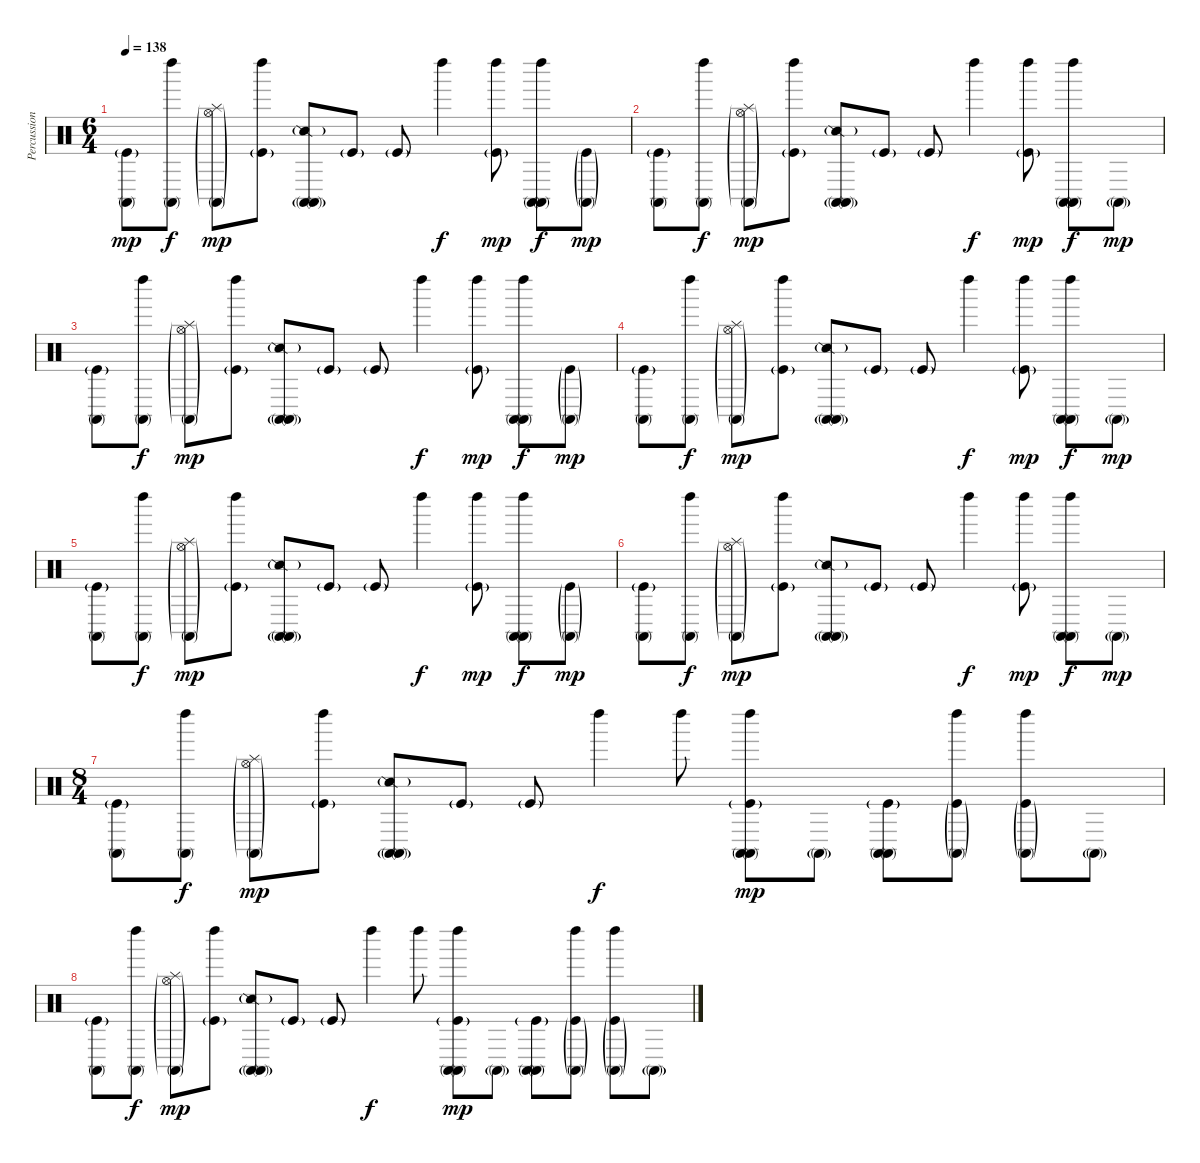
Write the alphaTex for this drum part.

\track ("Percussions" "Percussion") {instrument percussion}
\staff {score}
\articulation defaults
\ts (6 4)
\tempo 138
\clef neutral
\ks c
("Conga high (mute)" "Kick (hit)"{g}).8{dy mp} ("Conga high (mute)" "Left Maraca (hit)").8{dy f} ("Splash (hit)"{g} "Hi-Hat (open)"{g} "Conga high (mute)"{g}).8{dy mp} ("Kick (hit)"{g} "Left Maraca (hit)").8 ("Snare (side stick) 2"{g} "Conga high (mute)" "Conga high (mute)"{g}).8 "Kick (hit)"{g}.8 "Kick (hit)"{g}.8 "Left Maraca (hit)".4{dy f} ("Kick (hit)"{g} "Left Maraca (hit)").8{dy mp} ("Conga high (mute)" "Conga high (mute)" "Left Maraca (hit)").8{dy f} ("Conga high (mute)"{g} "Kick (hit)"{g}).8{dy mp} |
("Conga high (mute)" "Kick (hit)"{g}).8 ("Conga high (mute)" "Left Maraca (hit)").8{dy f} ("Splash (hit)"{g} "Hi-Hat (open)"{g} "Conga high (mute)"{g}).8{dy mp} ("Kick (hit)"{g} "Left Maraca (hit)").8 ("Snare (side stick) 2"{g} "Conga high (mute)" "Conga high (mute)"{g}).8 "Kick (hit)"{g}.8 "Kick (hit)"{g}.8 "Left Maraca (hit)".4{dy f} ("Kick (hit)"{g} "Left Maraca (hit)").8{dy mp} ("Conga high (mute)" "Conga high (mute)" "Left Maraca (hit)").8{dy f} "Conga high (mute)"{g}.8{dy mp} |
("Conga high (mute)" "Kick (hit)"{g}).8 ("Conga high (mute)" "Left Maraca (hit)").8{dy f} ("Splash (hit)"{g} "Hi-Hat (open)"{g} "Conga high (mute)"{g}).8{dy mp} ("Kick (hit)"{g} "Left Maraca (hit)").8 ("Snare (side stick) 2"{g} "Conga high (mute)" "Conga high (mute)"{g}).8 "Kick (hit)"{g}.8 "Kick (hit)"{g}.8 "Left Maraca (hit)".4{dy f} ("Kick (hit)"{g} "Left Maraca (hit)").8{dy mp} ("Conga high (mute)" "Conga high (mute)" "Left Maraca (hit)").8{dy f} ("Conga high (mute)"{g} "Kick (hit)"{g}).8{dy mp} |
("Conga high (mute)" "Kick (hit)"{g}).8 ("Conga high (mute)" "Left Maraca (hit)").8{dy f} ("Splash (hit)"{g} "Hi-Hat (open)"{g} "Conga high (mute)"{g}).8{dy mp} ("Kick (hit)"{g} "Left Maraca (hit)").8 ("Snare (side stick) 2"{g} "Conga high (mute)" "Conga high (mute)"{g}).8 "Kick (hit)"{g}.8 "Kick (hit)"{g}.8 "Left Maraca (hit)".4{dy f} ("Kick (hit)"{g} "Left Maraca (hit)").8{dy mp} ("Conga high (mute)" "Conga high (mute)" "Left Maraca (hit)").8{dy f} "Conga high (mute)"{g}.8{dy mp} |
("Conga high (mute)" "Kick (hit)"{g}).8 ("Conga high (mute)" "Left Maraca (hit)").8{dy f} ("Splash (hit)"{g} "Hi-Hat (open)"{g} "Conga high (mute)"{g}).8{dy mp} ("Kick (hit)"{g} "Left Maraca (hit)").8 ("Snare (side stick) 2"{g} "Conga high (mute)" "Conga high (mute)"{g}).8 "Kick (hit)"{g}.8 "Kick (hit)"{g}.8 "Left Maraca (hit)".4{dy f} ("Kick (hit)"{g} "Left Maraca (hit)").8{dy mp} ("Conga high (mute)" "Conga high (mute)" "Left Maraca (hit)").8{dy f} ("Conga high (mute)"{g} "Kick (hit)"{g}).8{dy mp} |
("Conga high (mute)" "Kick (hit)"{g}).8 ("Conga high (mute)" "Left Maraca (hit)").8{dy f} ("Splash (hit)"{g} "Hi-Hat (open)"{g} "Conga high (mute)"{g}).8{dy mp} ("Kick (hit)"{g} "Left Maraca (hit)").8 ("Snare (side stick) 2"{g} "Conga high (mute)" "Conga high (mute)"{g}).8 "Kick (hit)"{g}.8 "Kick (hit)"{g}.8 "Left Maraca (hit)".4{dy f} ("Kick (hit)"{g} "Left Maraca (hit)").8{dy mp} ("Conga high (mute)" "Conga high (mute)" "Left Maraca (hit)").8{dy f} "Conga high (mute)"{g}.8{dy mp} |
\ts (8 4)
("Conga high (mute)" "Kick (hit)"{g}).8 ("Conga high (mute)" "Left Maraca (hit)").8{dy f} ("Splash (hit)"{g} "Hi-Hat (open)"{g} "Conga high (mute)"{g}).8{dy mp} ("Kick (hit)"{g} "Left Maraca (hit)").8 ("Snare (side stick) 2"{g} "Conga high (mute)" "Conga high (mute)"{g}).8 "Kick (hit)"{g}.8 "Kick (hit)"{g}.8 "Left Maraca (hit)".4{dy f} "Left Maraca (hit)".8 ("Conga high (mute)" "Conga high (mute)" "Kick (hit)"{g} "Left Maraca (hit)").8{dy mp} "Conga high (mute)"{g}.8 ("Conga high (mute)" "Conga high (mute)" "Kick (hit)"{g}).8 ("Conga high (mute)"{g} "Kick (hit)"{g} "Left Maraca (hit)").8 ("Conga high (mute)"{g} "Kick (hit)"{g} "Left Maraca (hit)").8 "Conga high (mute)"{g}.8 |
("Conga high (mute)" "Kick (hit)"{g}).8 ("Conga high (mute)" "Left Maraca (hit)").8{dy f} ("Splash (hit)"{g} "Hi-Hat (open)"{g} "Conga high (mute)"{g}).8{dy mp} ("Kick (hit)"{g} "Left Maraca (hit)").8 ("Snare (side stick) 2"{g} "Conga high (mute)" "Conga high (mute)"{g}).8 "Kick (hit)"{g}.8 "Kick (hit)"{g}.8 "Left Maraca (hit)".4{dy f} "Left Maraca (hit)".8 ("Conga high (mute)" "Conga high (mute)" "Kick (hit)"{g} "Left Maraca (hit)").8{dy mp} "Conga high (mute)"{g}.8 ("Conga high (mute)" "Conga high (mute)" "Kick (hit)"{g}).8 ("Conga high (mute)"{g} "Kick (hit)"{g} "Left Maraca (hit)").8 ("Conga high (mute)"{g} "Kick (hit)"{g} "Left Maraca (hit)").8 "Conga high (mute)"{g}.8
